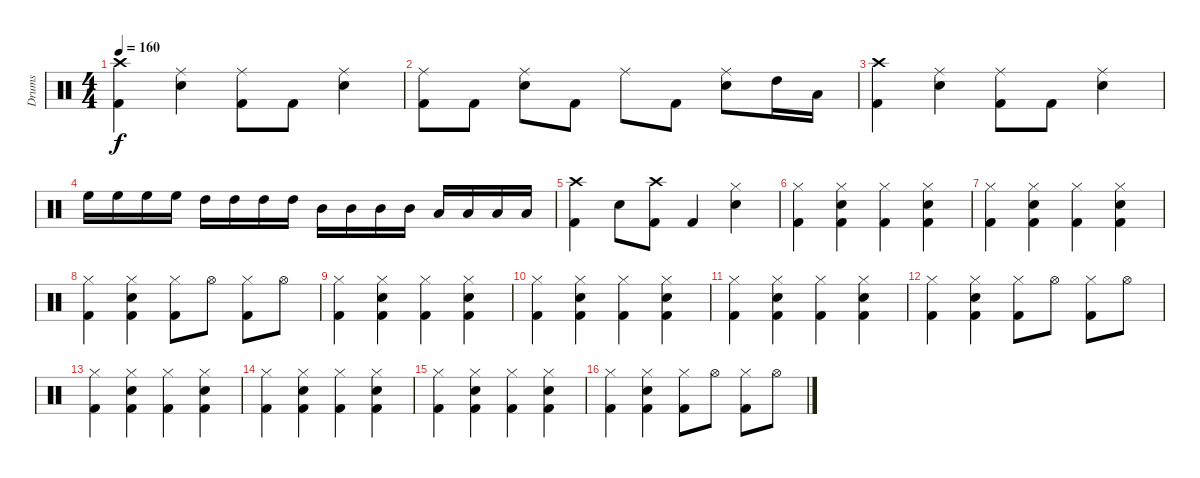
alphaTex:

\track ("Drums" "Drums") {instrument percussion}
\staff {score}
\articulation defaults
\ts (4 4)
\tempo 160
\clef neutral
\ks c
("Crash high (hit)" "Kick (hit) 2").4{dy f} ("Ride (middle)" "Snare (hit) 2").4 ("Ride (middle)" "Kick (hit) 2").8 "Kick (hit) 2".8 ("Ride (middle)" "Snare (hit) 2").4 |
("Ride (middle)" "Kick (hit) 2").8 "Kick (hit) 2".8 ("Ride (middle)" "Snare (hit) 2").8 "Kick (hit) 2".8 "Ride (middle)".8 "Kick (hit) 2".8 ("Ride (middle)" "Snare (hit) 2").8 "High Tom (hit)".16 "Low Tom (hit)".16 |
("Crash high (hit)" "Kick (hit) 2").4 ("Ride (middle)" "Snare (hit) 2").4 ("Ride (middle)" "Kick (hit) 2").8 "Kick (hit) 2".8 ("Ride (middle)" "Snare (hit) 2").4 |
"High Floor Tom (hit)".16 "High Floor Tom (hit)".16 "High Floor Tom (hit)".16 "High Floor Tom (hit)".16 "High Tom (hit)".16 "High Tom (hit)".16 "High Tom (hit)".16 "High Tom (hit)".16 "Mid Tom (hit)".16 "Mid Tom (hit)".16 "Mid Tom (hit)".16 "Mid Tom (hit)".16 "Low Tom (hit)".16 "Low Tom (hit)".16 "Low Tom (hit)".16 "Low Tom (hit)".16 |
("Crash high (hit)" "Kick (hit) 2").4 "Snare (hit) 2".8 ("Crash high (hit)" "Kick (hit) 2").8 "Kick (hit) 2".4 ("Hi-Hat (closed)" "Snare (hit) 2").4 |
("Hi-Hat (closed)" "Kick (hit) 2").4 ("Hi-Hat (closed)" "Kick (hit) 2" "Snare (hit) 2").4 ("Hi-Hat (closed)" "Kick (hit) 2").4 ("Hi-Hat (closed)" "Kick (hit) 2" "Snare (hit) 2").4 |
("Hi-Hat (closed)" "Kick (hit) 2").4 ("Hi-Hat (closed)" "Kick (hit) 2" "Snare (hit) 2").4 ("Hi-Hat (closed)" "Kick (hit) 2").4 ("Hi-Hat (closed)" "Kick (hit) 2" "Snare (hit) 2").4 |
("Hi-Hat (closed)" "Kick (hit) 2").4 ("Hi-Hat (closed)" "Kick (hit) 2" "Snare (hit) 2").4 ("Hi-Hat (closed)" "Kick (hit) 2").8 "Hi-Hat (open)".8 ("Hi-Hat (closed)" "Kick (hit) 2").8 "Hi-Hat (open)".8 |
("Hi-Hat (closed)" "Kick (hit) 2").4 ("Hi-Hat (closed)" "Kick (hit) 2" "Snare (hit) 2").4 ("Hi-Hat (closed)" "Kick (hit) 2").4 ("Hi-Hat (closed)" "Kick (hit) 2" "Snare (hit) 2").4 |
("Hi-Hat (closed)" "Kick (hit) 2").4 ("Hi-Hat (closed)" "Kick (hit) 2" "Snare (hit) 2").4 ("Hi-Hat (closed)" "Kick (hit) 2").4 ("Hi-Hat (closed)" "Kick (hit) 2" "Snare (hit) 2").4 |
("Hi-Hat (closed)" "Kick (hit) 2").4 ("Hi-Hat (closed)" "Kick (hit) 2" "Snare (hit) 2").4 ("Hi-Hat (closed)" "Kick (hit) 2").4 ("Hi-Hat (closed)" "Kick (hit) 2" "Snare (hit) 2").4 |
("Hi-Hat (closed)" "Kick (hit) 2").4 ("Hi-Hat (closed)" "Kick (hit) 2" "Snare (hit) 2").4 ("Hi-Hat (closed)" "Kick (hit) 2").8 "Hi-Hat (open)".8 ("Hi-Hat (closed)" "Kick (hit) 2").8 "Hi-Hat (open)".8 |
("Hi-Hat (closed)" "Kick (hit) 2").4 ("Hi-Hat (closed)" "Kick (hit) 2" "Snare (hit) 2").4 ("Hi-Hat (closed)" "Kick (hit) 2").4 ("Hi-Hat (closed)" "Kick (hit) 2" "Snare (hit) 2").4 |
("Hi-Hat (closed)" "Kick (hit) 2").4 ("Hi-Hat (closed)" "Kick (hit) 2" "Snare (hit) 2").4 ("Hi-Hat (closed)" "Kick (hit) 2").4 ("Hi-Hat (closed)" "Kick (hit) 2" "Snare (hit) 2").4 |
("Hi-Hat (closed)" "Kick (hit) 2").4 ("Hi-Hat (closed)" "Kick (hit) 2" "Snare (hit) 2").4 ("Hi-Hat (closed)" "Kick (hit) 2").4 ("Hi-Hat (closed)" "Kick (hit) 2" "Snare (hit) 2").4 |
("Hi-Hat (closed)" "Kick (hit) 2").4 ("Hi-Hat (closed)" "Kick (hit) 2" "Snare (hit) 2").4 ("Hi-Hat (closed)" "Kick (hit) 2").8 "Hi-Hat (open)".8 ("Hi-Hat (closed)" "Kick (hit) 2").8 "Hi-Hat (open)".8
